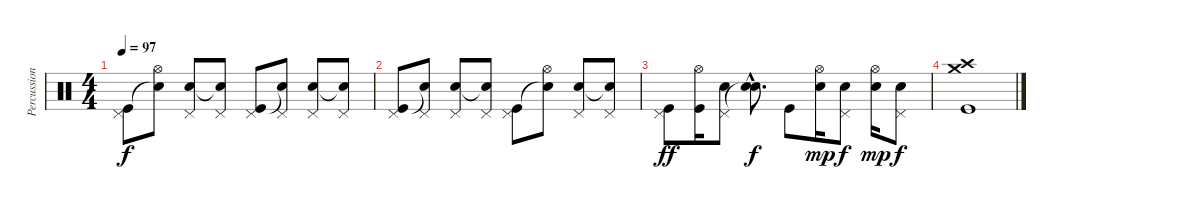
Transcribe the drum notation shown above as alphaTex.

\track ("Percussions" "Percussion") {instrument percussion}
\staff {score}
\articulation defaults
\ts (4 4)
\tempo 97
\clef neutral
\ks c
("Pedal Hi-Hat (hit)" "Kick (hit)").8{dy f} ("Hi-Hat (open)" "Snare (hit)"{t}).8 ("Pedal Hi-Hat (hit)" "Snare (hit) 2").8 ("Pedal Hi-Hat (hit)" "Snare (hit)"{t}).8 ("Pedal Hi-Hat (hit)" "Kick (hit)").8 ("Pedal Hi-Hat (hit)" "Snare (hit)"{t}).8 ("Pedal Hi-Hat (hit)" "Snare (hit) 2").8 ("Pedal Hi-Hat (hit)" "Snare (hit)"{t}).8 |
("Pedal Hi-Hat (hit)" "Kick (hit)").8 ("Pedal Hi-Hat (hit)" "Snare (hit)"{t}).8 ("Pedal Hi-Hat (hit)" "Snare (hit) 2").8 ("Pedal Hi-Hat (hit)" "Snare (hit)"{t}).8 ("Pedal Hi-Hat (hit)" "Kick (hit)").8 ("Hi-Hat (open)" "Snare (hit)"{t}).8 ("Pedal Hi-Hat (hit)" "Snare (hit) 2").8 ("Pedal Hi-Hat (hit)" "Snare (hit)"{t}).8 |
("Pedal Hi-Hat (hit)" "Kick (hit)").8{dy ff} ("Hi-Hat (open)" "Kick (hit)").16 ("Pedal Hi-Hat (hit)" "Snare (hit) 2").8 ("Snare (hit)"{hac t} "Snare (hit) 2"{hac}).8{d dy f} "Kick (hit)".8 ("Hi-Hat (open)" "Snare (hit) 2").16{dy mp} ("Pedal Hi-Hat (hit)" "Snare (hit) 2").8{dy f} ("Hi-Hat (open)" "Snare (hit) 2").16{dy mp} ("Pedal Hi-Hat (hit)" "Snare (hit) 2").8{dy f} |
("Crash medium (hit)" "Crash high (hit)" "Kick (hit)").1
